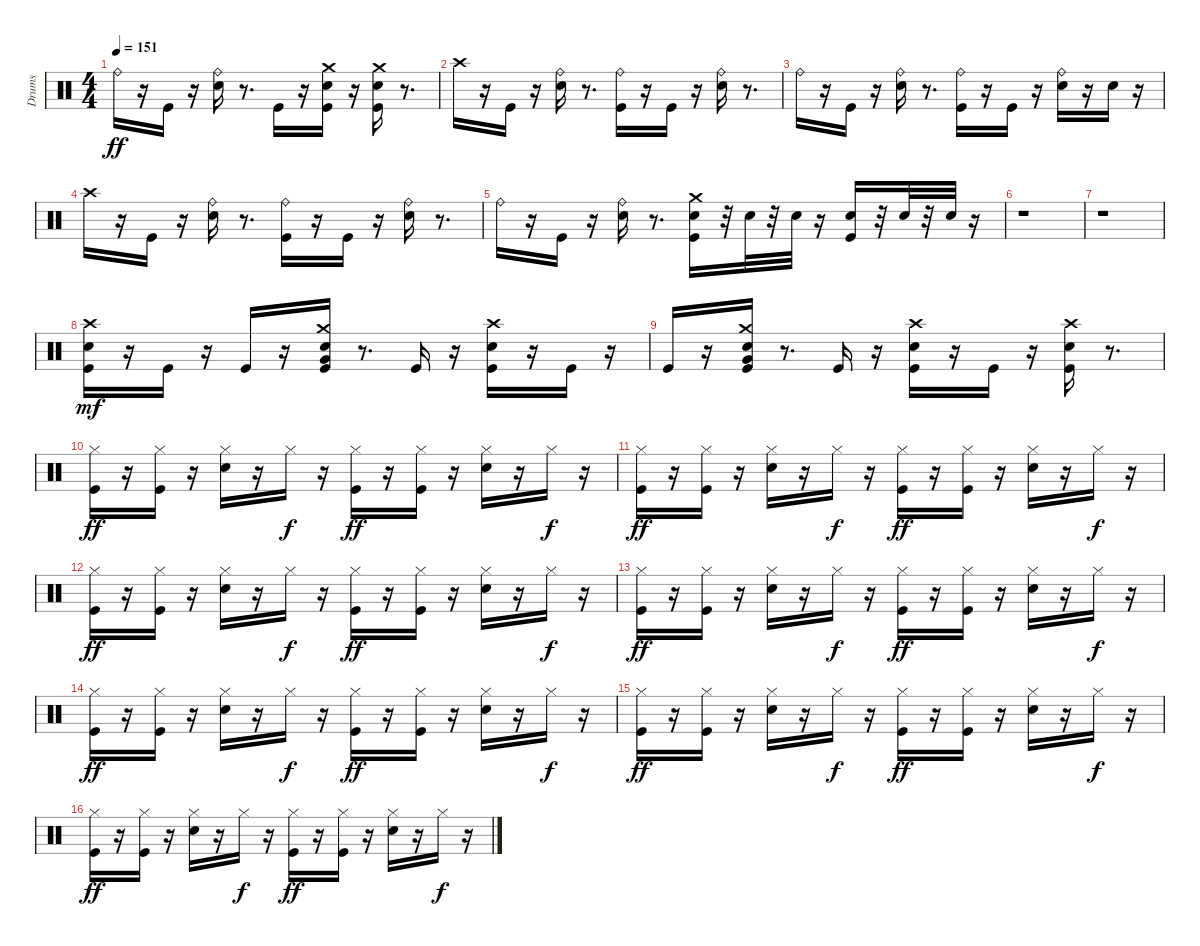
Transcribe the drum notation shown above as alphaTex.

\track ("Drums" "Drums") {instrument percussion}
\staff {score}
\articulation defaults
\ts (4 4)
\tempo 151
\clef neutral
\ks c "Ride (bell)".16{dy ff}
r.16 "Kick (hit)".16 r.16 ("Snare (hit) 2" "Ride (bell)").16 r.8{d} "Kick (hit)".16 r.16 ("Kick (hit)" "Snare (hit) 2" "Crash medium (hit)").16 r.16 ("Kick (hit)" "Snare (hit) 2" "Crash medium (hit)").16 r.8{d} |
"Crash high (hit)".16 r.16 "Kick (hit)".16 r.16 ("Snare (hit) 2" "Ride (bell)").16 r.8{d} ("Kick (hit)" "Ride (bell)").16 r.16 "Kick (hit)".16 r.16 ("Snare (hit) 2" "Ride (bell)").16 r.8{d} |
"Ride (bell)".16 r.16 "Kick (hit)".16 r.16 ("Snare (hit) 2" "Ride (bell)").16 r.8{d} ("Kick (hit)" "Ride (bell)").16 r.16 "Kick (hit)".16 r.16 ("Snare (hit) 2" "Ride (bell)").16 r.16 "Snare (hit) 2".16 r.16 |
"Crash high (hit)".16 r.16 "Kick (hit)".16 r.16 ("Snare (hit) 2" "Ride (bell)").16 r.8{d} ("Kick (hit)" "Ride (bell)").16 r.16 "Kick (hit)".16 r.16 ("Snare (hit) 2" "Ride (bell)").16 r.8{d} |
"Ride (bell)".16 r.16 "Kick (hit)".16 r.16 ("Snare (hit) 2" "Ride (bell)").16 r.8{d} ("Kick (hit)" "Snare (hit) 2" "Crash medium (hit)").16 r.32 "Snare (hit) 2".32 r.32 "Snare (hit) 2".32 r.16 ("Kick (hit)" "Snare (hit) 2").16 r.32 "Snare (hit) 2".32 r.32 "Snare (hit) 2".32 r.16 |
r.1 |
r.1 |
("Kick (hit)" "Snare (hit) 2" "Crash high (hit)").16{dy mf} r.16 "Kick (hit)".16 r.16 "Kick (hit)".16 r.16 ("Kick (hit)" "Snare (hit) 2" "Very Low Tom (hit)" "Crash medium (hit)").16 r.8{d} "Kick (hit)".16 r.16 ("Kick (hit)" "Snare (hit) 2" "Crash high (hit)").16 r.16 "Kick (hit)".16 r.16 |
"Kick (hit)".16 r.16 ("Kick (hit)" "Snare (hit) 2" "Very Low Tom (hit)" "Crash medium (hit)").16 r.8{d} "Kick (hit)".16 r.16 ("Kick (hit)" "Snare (hit) 2" "Crash high (hit)").16 r.16 "Kick (hit)".16 r.16 ("Kick (hit)" "Snare (hit) 2" "Crash high (hit)").16 r.8{d} |
("Kick (hit)" "Hi-Hat (closed)").16{dy ff} r.16 ("Kick (hit)" "Hi-Hat (closed)").16 r.16 ("Snare (hit) 2" "Hi-Hat (closed)").16 r.16 "Hi-Hat (closed)".16{dy f} r.16 ("Kick (hit)" "Hi-Hat (closed)").16{dy ff} r.16 ("Kick (hit)" "Hi-Hat (closed)").16 r.16 ("Snare (hit) 2" "Hi-Hat (closed)").16 r.16 "Hi-Hat (closed)".16{dy f} r.16 |
("Kick (hit)" "Hi-Hat (closed)").16{dy ff} r.16 ("Kick (hit)" "Hi-Hat (closed)").16 r.16 ("Snare (hit) 2" "Hi-Hat (closed)").16 r.16 "Hi-Hat (closed)".16{dy f} r.16 ("Kick (hit)" "Hi-Hat (closed)").16{dy ff} r.16 ("Kick (hit)" "Hi-Hat (closed)").16 r.16 ("Snare (hit) 2" "Hi-Hat (closed)").16 r.16 "Hi-Hat (closed)".16{dy f} r.16 |
("Kick (hit)" "Hi-Hat (closed)").16{dy ff} r.16 ("Kick (hit)" "Hi-Hat (closed)").16 r.16 ("Snare (hit) 2" "Hi-Hat (closed)").16 r.16 "Hi-Hat (closed)".16{dy f} r.16 ("Kick (hit)" "Hi-Hat (closed)").16{dy ff} r.16 ("Kick (hit)" "Hi-Hat (closed)").16 r.16 ("Snare (hit) 2" "Hi-Hat (closed)").16 r.16 "Hi-Hat (closed)".16{dy f} r.16 |
("Kick (hit)" "Hi-Hat (closed)").16{dy ff} r.16 ("Kick (hit)" "Hi-Hat (closed)").16 r.16 ("Snare (hit) 2" "Hi-Hat (closed)").16 r.16 "Hi-Hat (closed)".16{dy f} r.16 ("Kick (hit)" "Hi-Hat (closed)").16{dy ff} r.16 ("Kick (hit)" "Hi-Hat (closed)").16 r.16 ("Snare (hit) 2" "Hi-Hat (closed)").16 r.16 "Hi-Hat (closed)".16{dy f} r.16 |
("Kick (hit)" "Hi-Hat (closed)").16{dy ff} r.16 ("Kick (hit)" "Hi-Hat (closed)").16 r.16 ("Snare (hit) 2" "Hi-Hat (closed)").16 r.16 "Hi-Hat (closed)".16{dy f} r.16 ("Kick (hit)" "Hi-Hat (closed)").16{dy ff} r.16 ("Kick (hit)" "Hi-Hat (closed)").16 r.16 ("Snare (hit) 2" "Hi-Hat (closed)").16 r.16 "Hi-Hat (closed)".16{dy f} r.16 |
("Kick (hit)" "Hi-Hat (closed)").16{dy ff} r.16 ("Kick (hit)" "Hi-Hat (closed)").16 r.16 ("Snare (hit) 2" "Hi-Hat (closed)").16 r.16 "Hi-Hat (closed)".16{dy f} r.16 ("Kick (hit)" "Hi-Hat (closed)").16{dy ff} r.16 ("Kick (hit)" "Hi-Hat (closed)").16 r.16 ("Snare (hit) 2" "Hi-Hat (closed)").16 r.16 "Hi-Hat (closed)".16{dy f} r.16 |
("Kick (hit)" "Hi-Hat (closed)").16{dy ff} r.16 ("Kick (hit)" "Hi-Hat (closed)").16 r.16 ("Snare (hit) 2" "Hi-Hat (closed)").16 r.16 "Hi-Hat (closed)".16{dy f} r.16 ("Kick (hit)" "Hi-Hat (closed)").16{dy ff} r.16 ("Kick (hit)" "Hi-Hat (closed)").16 r.16 ("Snare (hit) 2" "Hi-Hat (closed)").16 r.16 "Hi-Hat (closed)".16{dy f} r.16
